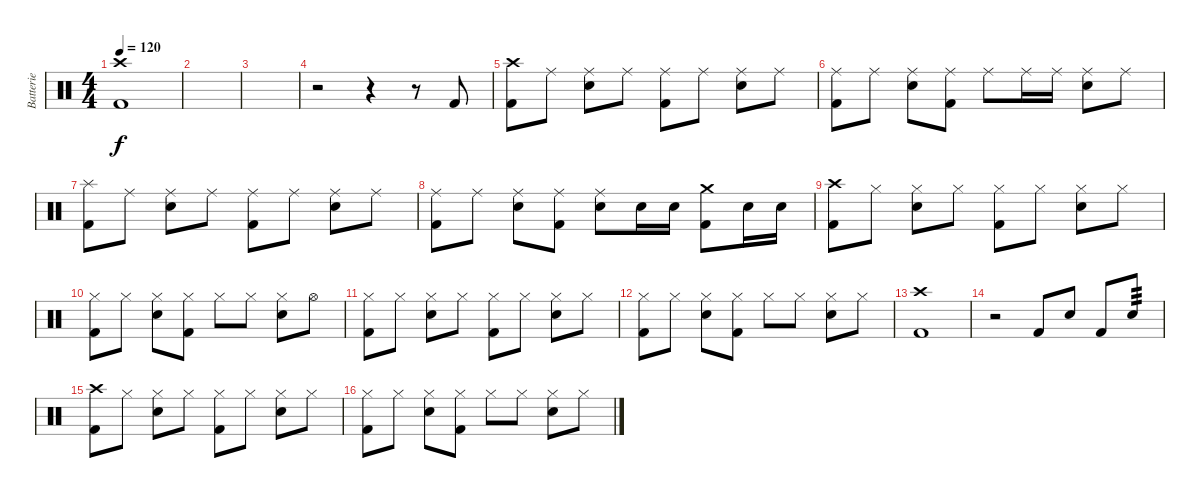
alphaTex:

\track ("Batterie" "Batterie") {instrument percussion}
\staff {score}
\articulation defaults
\ts (4 4)
\tempo 120
\clef neutral
\ks c
("Crash high (hit)" "Kick (hit) 2").1{dy f} |
|
|
r.2 r.4 r.8 "Kick (hit) 2".8 |
("Crash high (hit)" "Kick (hit) 2").8 "Ride (middle)".8 ("Ride (middle)" "Electric Snare (hit)").8 "Ride (middle)".8 ("Ride (middle)" "Kick (hit) 2").8 "Ride (middle)".8 ("Ride (middle)" "Electric Snare (hit)").8 "Ride (middle)".8 |
("Ride (middle)" "Kick (hit) 2").8 "Ride (middle)".8 ("Ride (middle)" "Electric Snare (hit)").8 ("Ride (middle)" "Kick (hit) 2").8 "Ride (middle)".8 "Ride (middle)".16 "Ride (middle)".16 ("Ride (middle)" "Electric Snare (hit)").8 "Ride (middle)".8 |
("Splash (hit)" "Kick (hit) 2").8 "Ride (middle)".8 ("Ride (middle)" "Electric Snare (hit)").8 "Ride (middle)".8 ("Ride (middle)" "Kick (hit) 2").8 "Ride (middle)".8 ("Ride (middle)" "Electric Snare (hit)").8 "Ride (middle)".8 |
("Ride (middle)" "Kick (hit) 2").8 "Ride (middle)".8 ("Ride (middle)" "Electric Snare (hit)").8 ("Ride (middle)" "Kick (hit) 2").8 ("Ride (middle)" "Electric Snare (hit)").8 "Electric Snare (hit)".16 "Electric Snare (hit)".16 ("Crash medium (hit)" "Kick (hit) 2").8 "Electric Snare (hit)".16 "Electric Snare (hit)".16 |
("Crash high (hit)" "Kick (hit) 2").8 "Hi-Hat (closed)".8 ("Hi-Hat (closed)" "Electric Snare (hit)").8 "Hi-Hat (closed)".8 ("Hi-Hat (closed)" "Kick (hit) 2").8 "Hi-Hat (closed)".8 ("Hi-Hat (closed)" "Electric Snare (hit)").8 "Hi-Hat (closed)".8 |
("Hi-Hat (closed)" "Kick (hit) 2").8 "Hi-Hat (closed)".8 ("Hi-Hat (closed)" "Electric Snare (hit)").8 ("Hi-Hat (closed)" "Kick (hit) 2").8 "Hi-Hat (closed)".8 "Hi-Hat (closed)".8 ("Hi-Hat (closed)" "Electric Snare (hit)").8 "Hi-Hat (open)".8 |
("Hi-Hat (closed)" "Kick (hit) 2").8 "Hi-Hat (closed)".8 ("Hi-Hat (closed)" "Electric Snare (hit)").8 "Hi-Hat (closed)".8 ("Hi-Hat (closed)" "Kick (hit) 2").8 "Hi-Hat (closed)".8 ("Hi-Hat (closed)" "Electric Snare (hit)").8 "Hi-Hat (closed)".8 |
("Hi-Hat (closed)" "Kick (hit) 2").8 "Hi-Hat (closed)".8 ("Hi-Hat (closed)" "Electric Snare (hit)").8 ("Hi-Hat (closed)" "Kick (hit) 2").8 "Hi-Hat (closed)".8 "Hi-Hat (closed)".8 ("Hi-Hat (closed)" "Electric Snare (hit)").8 "Hi-Hat (closed)".8 |
("Crash high (hit)" "Kick (hit) 2").1 |
r.2 "Kick (hit) 2".8 "Electric Snare (hit)".8 "Kick (hit) 2".8 "Electric Snare (hit)".8{tp 3} |
("Crash high (hit)" "Kick (hit) 2").8 "Hi-Hat (closed)".8 ("Hi-Hat (closed)" "Electric Snare (hit)").8 "Hi-Hat (closed)".8 ("Hi-Hat (closed)" "Kick (hit) 2").8 "Hi-Hat (closed)".8 ("Hi-Hat (closed)" "Electric Snare (hit)").8 "Hi-Hat (closed)".8 |
("Hi-Hat (closed)" "Kick (hit) 2").8 "Hi-Hat (closed)".8 ("Hi-Hat (closed)" "Electric Snare (hit)").8 ("Hi-Hat (closed)" "Kick (hit) 2").8 "Hi-Hat (closed)".8 "Hi-Hat (closed)".8 ("Hi-Hat (closed)" "Electric Snare (hit)").8 "Hi-Hat (closed)".8
